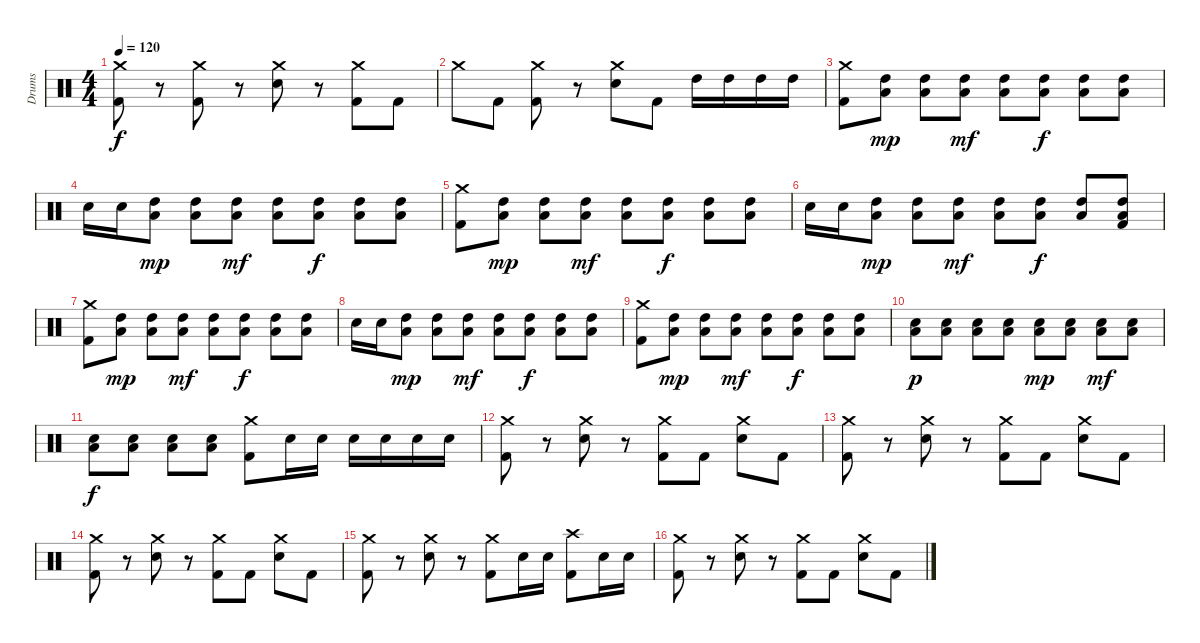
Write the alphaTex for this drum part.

\track ("Drums" "Drums") {instrument percussion}
\staff {score}
\articulation defaults
\ts (4 4)
\tempo 120
\clef neutral
\ks c
("Crash medium (hit)" "Kick (hit) 2").8{dy f} r.8 ("Crash medium (hit)" "Kick (hit) 2").8 r.8 ("Crash medium (hit)" "Snare (hit) 2").8 r.8 ("Crash medium (hit)" "Kick (hit) 2").8 "Kick (hit) 2".8 |
"Crash medium (hit)".8 "Kick (hit) 2".8 ("Crash medium (hit)" "Kick (hit) 2").8 r.8 ("Crash medium (hit)" "Snare (hit) 2").8 "Kick (hit) 2".8 "High Tom (hit)".16 "High Tom (hit)".16 "High Tom (hit)".16 "High Tom (hit)".16 |
("Crash medium (hit)" "Kick (hit) 2").8 ("High Tom (hit)" "Low Floor Tom (hit)").8{dy mp} ("High Tom (hit)" "Low Floor Tom (hit)").8 ("High Tom (hit)" "Low Floor Tom (hit)").8{dy mf} ("High Tom (hit)" "Low Floor Tom (hit)").8 ("High Tom (hit)" "Low Floor Tom (hit)").8{dy f} ("High Tom (hit)" "Low Floor Tom (hit)").8 ("High Tom (hit)" "Low Floor Tom (hit)").8 |
"Snare (hit) 2".16 "Snare (hit) 2".16 ("High Tom (hit)" "Low Floor Tom (hit)").8{dy mp} ("High Tom (hit)" "Low Floor Tom (hit)").8 ("High Tom (hit)" "Low Floor Tom (hit)").8{dy mf} ("High Tom (hit)" "Low Floor Tom (hit)").8 ("High Tom (hit)" "Low Floor Tom (hit)").8{dy f} ("High Tom (hit)" "Low Floor Tom (hit)").8 ("High Tom (hit)" "Low Floor Tom (hit)").8 |
("Crash medium (hit)" "Kick (hit) 2").8 ("High Tom (hit)" "Low Floor Tom (hit)").8{dy mp} ("High Tom (hit)" "Low Floor Tom (hit)").8 ("High Tom (hit)" "Low Floor Tom (hit)").8{dy mf} ("High Tom (hit)" "Low Floor Tom (hit)").8 ("High Tom (hit)" "Low Floor Tom (hit)").8{dy f} ("High Tom (hit)" "Low Floor Tom (hit)").8 ("High Tom (hit)" "Low Floor Tom (hit)").8 |
"Snare (hit) 2".16 "Snare (hit) 2".16 ("High Tom (hit)" "Low Floor Tom (hit)").8{dy mp} ("High Tom (hit)" "Low Floor Tom (hit)").8 ("High Tom (hit)" "Low Floor Tom (hit)").8{dy mf} ("High Tom (hit)" "Low Floor Tom (hit)").8 ("High Tom (hit)" "Low Floor Tom (hit)").8{dy f} ("High Tom (hit)" "Low Floor Tom (hit)").8 ("High Tom (hit)" "Low Floor Tom (hit)" "Kick (hit) 2").8 |
("Crash medium (hit)" "Kick (hit) 2").8 ("High Tom (hit)" "Low Floor Tom (hit)").8{dy mp} ("High Tom (hit)" "Low Floor Tom (hit)").8 ("High Tom (hit)" "Low Floor Tom (hit)").8{dy mf} ("High Tom (hit)" "Low Floor Tom (hit)").8 ("High Tom (hit)" "Low Floor Tom (hit)").8{dy f} ("High Tom (hit)" "Low Floor Tom (hit)").8 ("High Tom (hit)" "Low Floor Tom (hit)").8 |
"Snare (hit) 2".16 "Snare (hit) 2".16 ("High Tom (hit)" "Low Floor Tom (hit)").8{dy mp} ("High Tom (hit)" "Low Floor Tom (hit)").8 ("High Tom (hit)" "Low Floor Tom (hit)").8{dy mf} ("High Tom (hit)" "Low Floor Tom (hit)").8 ("High Tom (hit)" "Low Floor Tom (hit)").8{dy f} ("High Tom (hit)" "Low Floor Tom (hit)").8 ("High Tom (hit)" "Low Floor Tom (hit)").8 |
("Crash medium (hit)" "Kick (hit) 2").8 ("High Tom (hit)" "Low Floor Tom (hit)").8{dy mp} ("High Tom (hit)" "Low Floor Tom (hit)").8 ("High Tom (hit)" "Low Floor Tom (hit)").8{dy mf} ("High Tom (hit)" "Low Floor Tom (hit)").8 ("High Tom (hit)" "Low Floor Tom (hit)").8{dy f} ("High Tom (hit)" "Low Floor Tom (hit)").8 ("High Tom (hit)" "Low Floor Tom (hit)").8 |
("Snare (hit) 2" "Low Floor Tom (hit)").8{dy p} ("Snare (hit) 2" "Low Floor Tom (hit)").8 ("Snare (hit) 2" "Low Floor Tom (hit)").8 ("Snare (hit) 2" "Low Floor Tom (hit)").8 ("Snare (hit) 2" "Low Floor Tom (hit)").8{dy mp} ("Snare (hit) 2" "Low Floor Tom (hit)").8 ("Snare (hit) 2" "Low Floor Tom (hit)").8{dy mf} ("Snare (hit) 2" "Low Floor Tom (hit)").8 |
("Snare (hit) 2" "Low Floor Tom (hit)").8{dy f} ("Snare (hit) 2" "Low Floor Tom (hit)").8 ("Snare (hit) 2" "Low Floor Tom (hit)").8 ("Snare (hit) 2" "Low Floor Tom (hit)").8 ("Crash medium (hit)" "Kick (hit) 2").8 "Snare (hit) 2".16 "Snare (hit) 2".16 "Snare (hit) 2".16 "Snare (hit) 2".16 "Snare (hit) 2".16 "Snare (hit) 2".16 |
("Crash medium (hit)" "Kick (hit) 2").8 r.8 ("Crash medium (hit)" "Snare (hit) 2").8 r.8 ("Crash medium (hit)" "Kick (hit) 2").8 "Kick (hit) 2".8 ("Crash medium (hit)" "Snare (hit) 2").8 "Kick (hit) 2".8 |
("Crash medium (hit)" "Kick (hit) 2").8 r.8 ("Crash medium (hit)" "Snare (hit) 2").8 r.8 ("Crash medium (hit)" "Kick (hit) 2").8 "Kick (hit) 2".8 ("Crash medium (hit)" "Snare (hit) 2").8 "Kick (hit) 2".8 |
("Crash medium (hit)" "Kick (hit) 2").8 r.8 ("Crash medium (hit)" "Snare (hit) 2").8 r.8 ("Crash medium (hit)" "Kick (hit) 2").8 "Kick (hit) 2".8 ("Crash medium (hit)" "Snare (hit) 2").8 "Kick (hit) 2".8 |
("Crash medium (hit)" "Kick (hit) 2").8 r.8 ("Crash medium (hit)" "Snare (hit) 2").8 r.8 ("Crash medium (hit)" "Kick (hit) 2").8 "Snare (hit) 2".16 "Snare (hit) 2".16 ("Crash high (hit)" "Kick (hit) 2").8 "Snare (hit) 2".16 "Snare (hit) 2".16 |
("Crash medium (hit)" "Kick (hit) 2").8 r.8 ("Crash medium (hit)" "Snare (hit) 2").8 r.8 ("Crash medium (hit)" "Kick (hit) 2").8 "Kick (hit) 2".8 ("Crash medium (hit)" "Snare (hit) 2").8 "Kick (hit) 2".8
